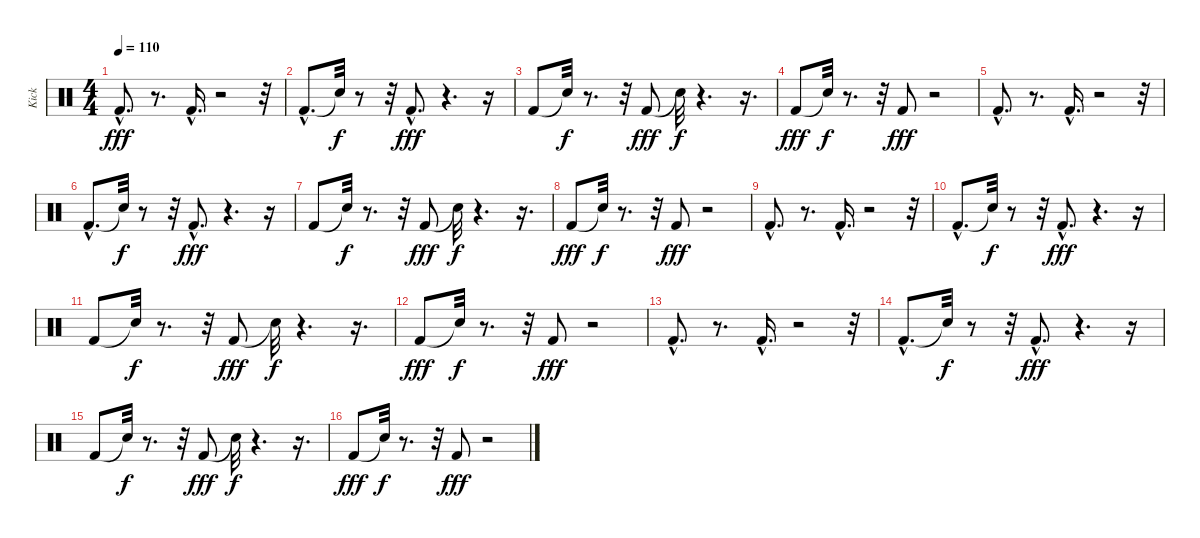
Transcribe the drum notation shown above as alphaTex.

\track ("Kick" "Kick") {instrument percussion}
\staff {score}
\articulation defaults
\ts (4 4)
\tempo 110
\clef neutral
\ks c "Kick (hit) 2"{hac}.8{d dy fff}
r.8{d} "Kick (hit) 2"{hac}.16{d} r.2 r.32 |
"Kick (hit) 2"{hac}.8{d} "Snare (hit)"{t}.32{dy f} r.8 r.32 "Kick (hit) 2"{hac}.8{d dy fff} r.4{d} r.16 |
"Kick (hit) 2".8 "Snare (hit)"{t}.32{dy f} r.8{d} r.32 "Kick (hit) 2".8{dy fff} "Snare (hit)"{t}.32{dy f} r.4{d} r.16{d} |
"Kick (hit) 2".8{dy fff} "Snare (hit)"{t}.32{dy f} r.8{d} r.32 "Kick (hit) 2".8{dy fff} r.2 |
"Kick (hit) 2"{hac}.8{d} r.8{d} "Kick (hit) 2"{hac}.16{d} r.2 r.32 |
"Kick (hit) 2"{hac}.8{d} "Snare (hit)"{t}.32{dy f} r.8 r.32 "Kick (hit) 2"{hac}.8{d dy fff} r.4{d} r.16 |
"Kick (hit) 2".8 "Snare (hit)"{t}.32{dy f} r.8{d} r.32 "Kick (hit) 2".8{dy fff} "Snare (hit)"{t}.32{dy f} r.4{d} r.16{d} |
"Kick (hit) 2".8{dy fff} "Snare (hit)"{t}.32{dy f} r.8{d} r.32 "Kick (hit) 2".8{dy fff} r.2 |
"Kick (hit) 2"{hac}.8{d} r.8{d} "Kick (hit) 2"{hac}.16{d} r.2 r.32 |
"Kick (hit) 2"{hac}.8{d} "Snare (hit)"{t}.32{dy f} r.8 r.32 "Kick (hit) 2"{hac}.8{d dy fff} r.4{d} r.16 |
"Kick (hit) 2".8 "Snare (hit)"{t}.32{dy f} r.8{d} r.32 "Kick (hit) 2".8{dy fff} "Snare (hit)"{t}.32{dy f} r.4{d} r.16{d} |
"Kick (hit) 2".8{dy fff} "Snare (hit)"{t}.32{dy f} r.8{d} r.32 "Kick (hit) 2".8{dy fff} r.2 |
"Kick (hit) 2"{hac}.8{d} r.8{d} "Kick (hit) 2"{hac}.16{d} r.2 r.32 |
"Kick (hit) 2"{hac}.8{d} "Snare (hit)"{t}.32{dy f} r.8 r.32 "Kick (hit) 2"{hac}.8{d dy fff} r.4{d} r.16 |
"Kick (hit) 2".8 "Snare (hit)"{t}.32{dy f} r.8{d} r.32 "Kick (hit) 2".8{dy fff} "Snare (hit)"{t}.32{dy f} r.4{d} r.16{d} |
"Kick (hit) 2".8{dy fff} "Snare (hit)"{t}.32{dy f} r.8{d} r.32 "Kick (hit) 2".8{dy fff} r.2
